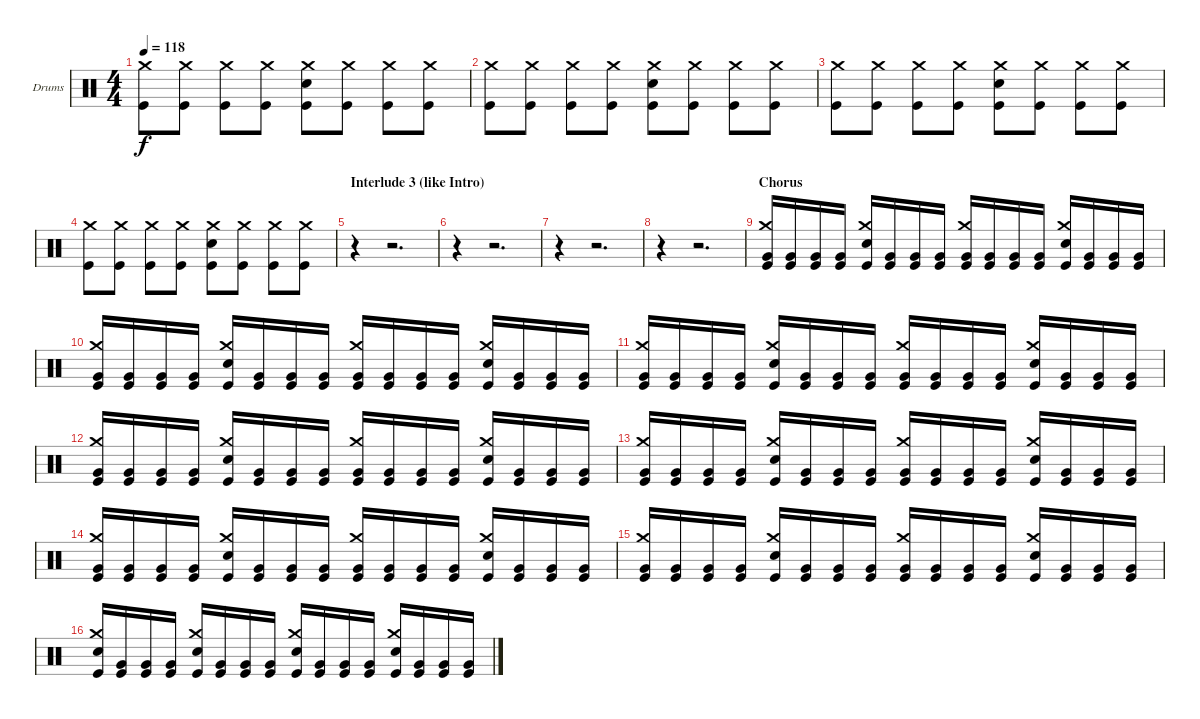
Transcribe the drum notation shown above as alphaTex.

\bracketExtendMode groupsimilarinstruments
\firstSystemTrackNameOrientation horizontal
\otherSystemsTrackNameOrientation horizontal
\track ("Drumkit" "Drums") {solo instrument percussion}
\staff {score}
\articulation defaults
\ts (4 4)
\tempo 118
\clef neutral
\ks c
("Kick (hit)" "Crash medium (hit)").8{dy f} ("Kick (hit)" "Crash medium (hit)").8 ("Kick (hit)" "Crash medium (hit)").8 ("Kick (hit)" "Crash medium (hit)").8 ("Kick (hit)" "Snare (hit) 2" "Crash medium (hit)").8 ("Kick (hit)" "Crash medium (hit)").8 ("Kick (hit)" "Crash medium (hit)").8 ("Kick (hit)" "Crash medium (hit)").8 |
("Kick (hit)" "Crash medium (hit)").8 ("Kick (hit)" "Crash medium (hit)").8 ("Kick (hit)" "Crash medium (hit)").8 ("Kick (hit)" "Crash medium (hit)").8 ("Kick (hit)" "Snare (hit) 2" "Crash medium (hit)").8 ("Kick (hit)" "Crash medium (hit)").8 ("Kick (hit)" "Crash medium (hit)").8 ("Kick (hit)" "Crash medium (hit)").8 |
("Kick (hit)" "Crash medium (hit)").8 ("Kick (hit)" "Crash medium (hit)").8 ("Kick (hit)" "Crash medium (hit)").8 ("Kick (hit)" "Crash medium (hit)").8 ("Kick (hit)" "Snare (hit) 2" "Crash medium (hit)").8 ("Kick (hit)" "Crash medium (hit)").8 ("Kick (hit)" "Crash medium (hit)").8 ("Kick (hit)" "Crash medium (hit)").8 |
("Kick (hit)" "Crash medium (hit)").8 ("Kick (hit)" "Crash medium (hit)").8 ("Kick (hit)" "Crash medium (hit)").8 ("Kick (hit)" "Crash medium (hit)").8 ("Kick (hit)" "Snare (hit) 2" "Crash medium (hit)").8 ("Kick (hit)" "Crash medium (hit)").8 ("Kick (hit)" "Crash medium (hit)").8 ("Kick (hit)" "Crash medium (hit)").8 |
\section ("" "Interlude 3 (like Intro)")
r.4 r.2{d} |
r.4 r.2{d} |
r.4 r.2{d} |
r.4 r.2{d} |
\section ("" "Chorus")
("Kick (hit)" "Very Low Tom (hit)" "Crash medium (hit)").16 ("Kick (hit)" "Very Low Tom (hit)").16 ("Kick (hit)" "Very Low Tom (hit)").16 ("Kick (hit)" "Very Low Tom (hit)").16 ("Kick (hit)" "Snare (hit) 2" "Crash medium (hit)").16 ("Kick (hit)" "Very Low Tom (hit)").16 ("Kick (hit)" "Very Low Tom (hit)").16 ("Kick (hit)" "Very Low Tom (hit)").16 ("Kick (hit)" "Very Low Tom (hit)" "Crash medium (hit)").16 ("Kick (hit)" "Very Low Tom (hit)").16 ("Kick (hit)" "Very Low Tom (hit)").16 ("Kick (hit)" "Very Low Tom (hit)").16 ("Kick (hit)" "Snare (hit) 2" "Crash medium (hit)").16 ("Kick (hit)" "Very Low Tom (hit)").16 ("Kick (hit)" "Very Low Tom (hit)").16 ("Kick (hit)" "Very Low Tom (hit)").16 |
("Kick (hit)" "Very Low Tom (hit)" "Crash medium (hit)").16 ("Kick (hit)" "Very Low Tom (hit)").16 ("Kick (hit)" "Very Low Tom (hit)").16 ("Kick (hit)" "Very Low Tom (hit)").16 ("Kick (hit)" "Snare (hit) 2" "Crash medium (hit)").16 ("Kick (hit)" "Very Low Tom (hit)").16 ("Kick (hit)" "Very Low Tom (hit)").16 ("Kick (hit)" "Very Low Tom (hit)").16 ("Kick (hit)" "Very Low Tom (hit)" "Crash medium (hit)").16 ("Kick (hit)" "Very Low Tom (hit)").16 ("Kick (hit)" "Very Low Tom (hit)").16 ("Kick (hit)" "Very Low Tom (hit)").16 ("Kick (hit)" "Snare (hit) 2" "Crash medium (hit)").16 ("Kick (hit)" "Very Low Tom (hit)").16 ("Kick (hit)" "Very Low Tom (hit)").16 ("Kick (hit)" "Very Low Tom (hit)").16 |
("Kick (hit)" "Very Low Tom (hit)" "Crash medium (hit)").16 ("Kick (hit)" "Very Low Tom (hit)").16 ("Kick (hit)" "Very Low Tom (hit)").16 ("Kick (hit)" "Very Low Tom (hit)").16 ("Kick (hit)" "Snare (hit) 2" "Crash medium (hit)").16 ("Kick (hit)" "Very Low Tom (hit)").16 ("Kick (hit)" "Very Low Tom (hit)").16 ("Kick (hit)" "Very Low Tom (hit)").16 ("Kick (hit)" "Very Low Tom (hit)" "Crash medium (hit)").16 ("Kick (hit)" "Very Low Tom (hit)").16 ("Kick (hit)" "Very Low Tom (hit)").16 ("Kick (hit)" "Very Low Tom (hit)").16 ("Kick (hit)" "Snare (hit) 2" "Crash medium (hit)").16 ("Kick (hit)" "Very Low Tom (hit)").16 ("Kick (hit)" "Very Low Tom (hit)").16 ("Kick (hit)" "Very Low Tom (hit)").16 |
("Kick (hit)" "Very Low Tom (hit)" "Crash medium (hit)").16 ("Kick (hit)" "Very Low Tom (hit)").16 ("Kick (hit)" "Very Low Tom (hit)").16 ("Kick (hit)" "Very Low Tom (hit)").16 ("Kick (hit)" "Snare (hit) 2" "Crash medium (hit)").16 ("Kick (hit)" "Very Low Tom (hit)").16 ("Kick (hit)" "Very Low Tom (hit)").16 ("Kick (hit)" "Very Low Tom (hit)").16 ("Kick (hit)" "Very Low Tom (hit)" "Crash medium (hit)").16 ("Kick (hit)" "Very Low Tom (hit)").16 ("Kick (hit)" "Very Low Tom (hit)").16 ("Kick (hit)" "Very Low Tom (hit)").16 ("Kick (hit)" "Snare (hit) 2" "Crash medium (hit)").16 ("Kick (hit)" "Very Low Tom (hit)").16 ("Kick (hit)" "Very Low Tom (hit)").16 ("Kick (hit)" "Very Low Tom (hit)").16 |
("Kick (hit)" "Very Low Tom (hit)" "Crash medium (hit)").16 ("Kick (hit)" "Very Low Tom (hit)").16 ("Kick (hit)" "Very Low Tom (hit)").16 ("Kick (hit)" "Very Low Tom (hit)").16 ("Kick (hit)" "Snare (hit) 2" "Crash medium (hit)").16 ("Kick (hit)" "Very Low Tom (hit)").16 ("Kick (hit)" "Very Low Tom (hit)").16 ("Kick (hit)" "Very Low Tom (hit)").16 ("Kick (hit)" "Very Low Tom (hit)" "Crash medium (hit)").16 ("Kick (hit)" "Very Low Tom (hit)").16 ("Kick (hit)" "Very Low Tom (hit)").16 ("Kick (hit)" "Very Low Tom (hit)").16 ("Kick (hit)" "Snare (hit) 2" "Crash medium (hit)").16 ("Kick (hit)" "Very Low Tom (hit)").16 ("Kick (hit)" "Very Low Tom (hit)").16 ("Kick (hit)" "Very Low Tom (hit)").16 |
("Kick (hit)" "Very Low Tom (hit)" "Crash medium (hit)").16 ("Kick (hit)" "Very Low Tom (hit)").16 ("Kick (hit)" "Very Low Tom (hit)").16 ("Kick (hit)" "Very Low Tom (hit)").16 ("Kick (hit)" "Snare (hit) 2" "Crash medium (hit)").16 ("Kick (hit)" "Very Low Tom (hit)").16 ("Kick (hit)" "Very Low Tom (hit)").16 ("Kick (hit)" "Very Low Tom (hit)").16 ("Kick (hit)" "Very Low Tom (hit)" "Crash medium (hit)").16 ("Kick (hit)" "Very Low Tom (hit)").16 ("Kick (hit)" "Very Low Tom (hit)").16 ("Kick (hit)" "Very Low Tom (hit)").16 ("Kick (hit)" "Snare (hit) 2" "Crash medium (hit)").16 ("Kick (hit)" "Very Low Tom (hit)").16 ("Kick (hit)" "Very Low Tom (hit)").16 ("Kick (hit)" "Very Low Tom (hit)").16 |
("Kick (hit)" "Very Low Tom (hit)" "Crash medium (hit)").16 ("Kick (hit)" "Very Low Tom (hit)").16 ("Kick (hit)" "Very Low Tom (hit)").16 ("Kick (hit)" "Very Low Tom (hit)").16 ("Kick (hit)" "Snare (hit) 2" "Crash medium (hit)").16 ("Kick (hit)" "Very Low Tom (hit)").16 ("Kick (hit)" "Very Low Tom (hit)").16 ("Kick (hit)" "Very Low Tom (hit)").16 ("Kick (hit)" "Very Low Tom (hit)" "Crash medium (hit)").16 ("Kick (hit)" "Very Low Tom (hit)").16 ("Kick (hit)" "Very Low Tom (hit)").16 ("Kick (hit)" "Very Low Tom (hit)").16 ("Kick (hit)" "Snare (hit) 2" "Crash medium (hit)").16 ("Kick (hit)" "Very Low Tom (hit)").16 ("Kick (hit)" "Very Low Tom (hit)").16 ("Kick (hit)" "Very Low Tom (hit)").16 |
("Kick (hit)" "Snare (hit) 2" "Crash medium (hit)").16 ("Kick (hit)" "Very Low Tom (hit)").16 ("Kick (hit)" "Very Low Tom (hit)").16 ("Kick (hit)" "Very Low Tom (hit)").16 ("Kick (hit)" "Snare (hit) 2" "Crash medium (hit)").16 ("Kick (hit)" "Very Low Tom (hit)").16 ("Kick (hit)" "Very Low Tom (hit)").16 ("Kick (hit)" "Very Low Tom (hit)").16 ("Kick (hit)" "Snare (hit) 2" "Crash medium (hit)").16 ("Kick (hit)" "Very Low Tom (hit)").16 ("Kick (hit)" "Very Low Tom (hit)").16 ("Kick (hit)" "Very Low Tom (hit)").16 ("Kick (hit)" "Snare (hit) 2" "Crash medium (hit)").16 ("Kick (hit)" "Very Low Tom (hit)").16 ("Kick (hit)" "Very Low Tom (hit)").16 ("Kick (hit)" "Very Low Tom (hit)").16
